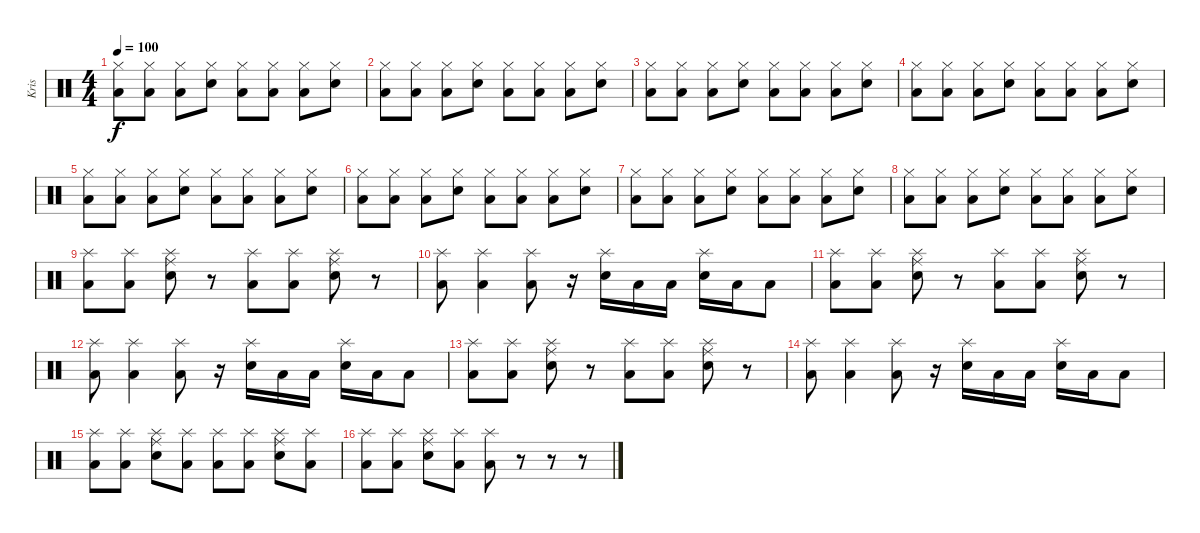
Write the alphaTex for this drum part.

\track ("Kris" "Kris") {instrument percussion}
\staff {score}
\articulation defaults
\ts (4 4)
\tempo 100
\clef neutral
\ks c
("Low Tom (hit)" "Hi-Hat (closed)").8{dy f} ("Low Tom (hit)" "Hi-Hat (closed)").8 ("Hi-Hat (closed)" "Low Tom (hit)").8 ("Hi-Hat (closed)" "Electric Snare (hit)").8 ("Hi-Hat (closed)" "Low Tom (hit)").8 ("Hi-Hat (closed)" "Low Tom (hit)").8 ("Hi-Hat (closed)" "Low Tom (hit)").8 ("Hi-Hat (closed)" "Electric Snare (hit)").8 |
("Low Tom (hit)" "Hi-Hat (closed)").8 ("Low Tom (hit)" "Hi-Hat (closed)").8 ("Hi-Hat (closed)" "Low Tom (hit)").8 ("Hi-Hat (closed)" "Electric Snare (hit)").8 ("Hi-Hat (closed)" "Low Tom (hit)").8 ("Hi-Hat (closed)" "Low Tom (hit)").8 ("Hi-Hat (closed)" "Low Tom (hit)").8 ("Hi-Hat (closed)" "Electric Snare (hit)").8 |
("Low Tom (hit)" "Hi-Hat (closed)").8 ("Low Tom (hit)" "Hi-Hat (closed)").8 ("Hi-Hat (closed)" "Low Tom (hit)").8 ("Hi-Hat (closed)" "Electric Snare (hit)").8 ("Hi-Hat (closed)" "Low Tom (hit)").8 ("Hi-Hat (closed)" "Low Tom (hit)").8 ("Hi-Hat (closed)" "Low Tom (hit)").8 ("Hi-Hat (closed)" "Electric Snare (hit)").8 |
("Low Tom (hit)" "Hi-Hat (closed)").8 ("Low Tom (hit)" "Hi-Hat (closed)").8 ("Hi-Hat (closed)" "Low Tom (hit)").8 ("Hi-Hat (closed)" "Electric Snare (hit)").8 ("Hi-Hat (closed)" "Low Tom (hit)").8 ("Hi-Hat (closed)" "Low Tom (hit)").8 ("Hi-Hat (closed)" "Low Tom (hit)").8 ("Hi-Hat (closed)" "Electric Snare (hit)").8 |
("Low Tom (hit)" "Hi-Hat (closed)").8 ("Low Tom (hit)" "Hi-Hat (closed)").8 ("Hi-Hat (closed)" "Low Tom (hit)").8 ("Hi-Hat (closed)" "Electric Snare (hit)").8 ("Hi-Hat (closed)" "Low Tom (hit)").8 ("Hi-Hat (closed)" "Low Tom (hit)").8 ("Hi-Hat (closed)" "Low Tom (hit)").8 ("Hi-Hat (closed)" "Electric Snare (hit)").8 |
("Low Tom (hit)" "Hi-Hat (closed)").8 ("Low Tom (hit)" "Hi-Hat (closed)").8 ("Hi-Hat (closed)" "Low Tom (hit)").8 ("Hi-Hat (closed)" "Electric Snare (hit)").8 ("Hi-Hat (closed)" "Low Tom (hit)").8 ("Hi-Hat (closed)" "Low Tom (hit)").8 ("Hi-Hat (closed)" "Low Tom (hit)").8 ("Hi-Hat (closed)" "Electric Snare (hit)").8 |
("Low Tom (hit)" "Hi-Hat (closed)").8 ("Low Tom (hit)" "Hi-Hat (closed)").8 ("Hi-Hat (closed)" "Low Tom (hit)").8 ("Hi-Hat (closed)" "Electric Snare (hit)").8 ("Hi-Hat (closed)" "Low Tom (hit)").8 ("Hi-Hat (closed)" "Low Tom (hit)").8 ("Hi-Hat (closed)" "Low Tom (hit)").8 ("Hi-Hat (closed)" "Electric Snare (hit)").8 |
("Low Tom (hit)" "Hi-Hat (closed)").8 ("Low Tom (hit)" "Hi-Hat (closed)").8 ("Hi-Hat (closed)" "Low Tom (hit)").8 ("Hi-Hat (closed)" "Electric Snare (hit)").8 ("Hi-Hat (closed)" "Low Tom (hit)").8 ("Hi-Hat (closed)" "Low Tom (hit)").8 ("Hi-Hat (closed)" "Low Tom (hit)").8 ("Hi-Hat (closed)" "Electric Snare (hit)").8 |
("Splash (hit)" "Low Tom (hit)").8 ("Splash (hit)" "Low Tom (hit)").8 ("Splash (hit)" "Ride (middle)" "Electric Snare (hit)").8 r.8 ("Splash (hit)" "Low Tom (hit)").8 ("Splash (hit)" "Low Tom (hit)").8 ("Splash (hit)" "Ride (middle)" "Electric Snare (hit)").8 r.8 |
("Splash (hit)" "Low Tom (hit)").8 ("Splash (hit)" "Low Tom (hit)").4 ("Splash (hit)" "Low Tom (hit)").8 r.16 ("Splash (hit)" "Electric Snare (hit)").16 "Low Tom (hit)".16 "Low Tom (hit)".16 ("Splash (hit)" "Electric Snare (hit)").16 "Low Tom (hit)".16 "Low Tom (hit)".8 |
("Splash (hit)" "Low Tom (hit)").8 ("Splash (hit)" "Low Tom (hit)").8 ("Splash (hit)" "Ride (middle)" "Electric Snare (hit)").8 r.8 ("Splash (hit)" "Low Tom (hit)").8 ("Splash (hit)" "Low Tom (hit)").8 ("Splash (hit)" "Ride (middle)" "Electric Snare (hit)").8 r.8 |
("Splash (hit)" "Low Tom (hit)").8 ("Splash (hit)" "Low Tom (hit)").4 ("Splash (hit)" "Low Tom (hit)").8 r.16 ("Splash (hit)" "Electric Snare (hit)").16 "Low Tom (hit)".16 "Low Tom (hit)".16 ("Splash (hit)" "Electric Snare (hit)").16 "Low Tom (hit)".16 "Low Tom (hit)".8 |
("Splash (hit)" "Low Tom (hit)").8 ("Splash (hit)" "Low Tom (hit)").8 ("Splash (hit)" "Ride (middle)" "Electric Snare (hit)").8 r.8 ("Splash (hit)" "Low Tom (hit)").8 ("Splash (hit)" "Low Tom (hit)").8 ("Splash (hit)" "Ride (middle)" "Electric Snare (hit)").8 r.8 |
("Splash (hit)" "Low Tom (hit)").8 ("Splash (hit)" "Low Tom (hit)").4 ("Splash (hit)" "Low Tom (hit)").8 r.16 ("Splash (hit)" "Electric Snare (hit)").16 "Low Tom (hit)".16 "Low Tom (hit)".16 ("Splash (hit)" "Electric Snare (hit)").16 "Low Tom (hit)".16 "Low Tom (hit)".8 |
("Splash (hit)" "Low Tom (hit)").8 ("Splash (hit)" "Low Tom (hit)").8 ("Splash (hit)" "Ride (middle)" "Electric Snare (hit)").8 ("Splash (hit)" "Low Tom (hit)").8 ("Splash (hit)" "Low Tom (hit)").8 ("Splash (hit)" "Low Tom (hit)").8 ("Splash (hit)" "Ride (middle)" "Electric Snare (hit)").8 ("Splash (hit)" "Low Tom (hit)").8 |
("Splash (hit)" "Low Tom (hit)").8 ("Splash (hit)" "Low Tom (hit)").8 ("Splash (hit)" "Ride (middle)" "Electric Snare (hit)").8 ("Splash (hit)" "Low Tom (hit)").8 ("Splash (hit)" "Low Tom (hit)").8 r.8 r.8 r.8
